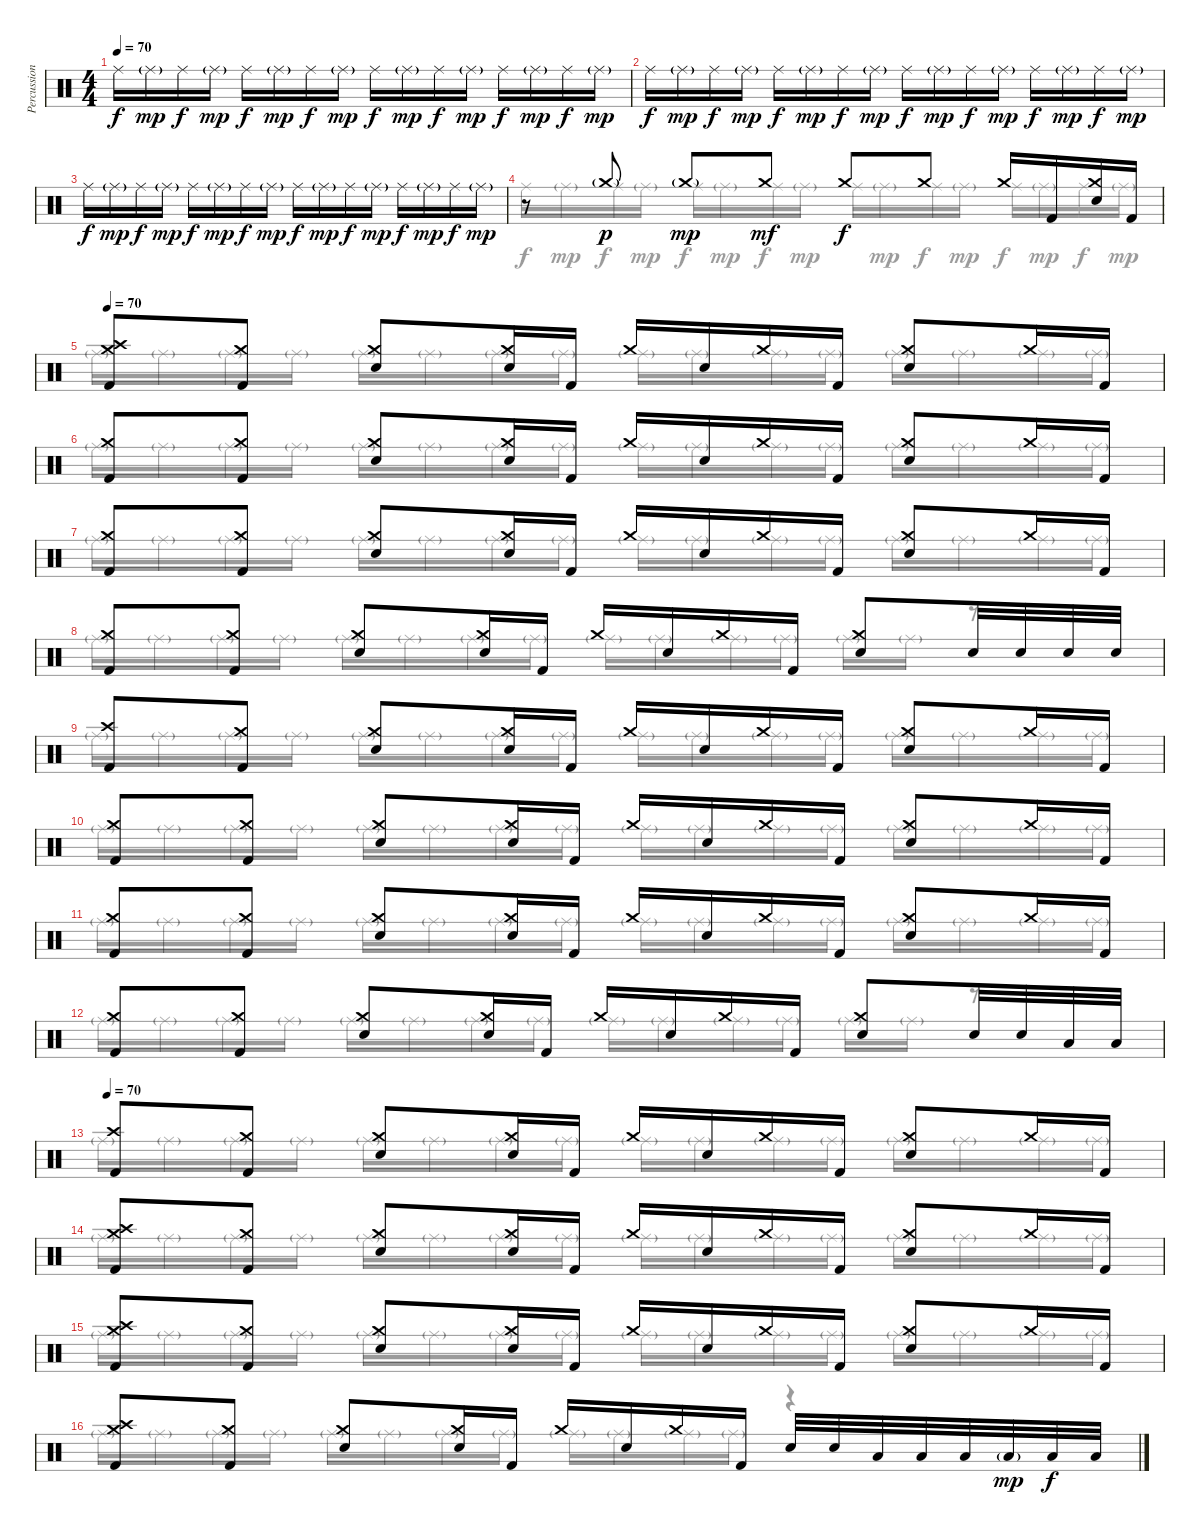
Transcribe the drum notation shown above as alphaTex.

\track ("Percussion" "Percussion") {instrument percussion}
\staff {score}
\articulation defaults
\voice
\ts (4 4)
\tempo 70
\clef neutral
\ks c "Ride (middle)".16{dy f} "Ride (middle)"{g}.16{dy mp} "Ride (middle)".16{dy f} "Ride (middle)"{g}.16{dy mp} "Ride (middle)".16{dy f} "Ride (middle)"{g}.16{dy mp} "Ride (middle)".16{dy f} "Ride (middle)"{g}.16{dy mp} "Ride (middle)".16{dy f} "Ride (middle)"{g}.16{dy mp} "Ride (middle)".16{dy f} "Ride (middle)"{g}.16{dy mp} "Ride (middle)".16{dy f} "Ride (middle)"{g}.16{dy mp} "Ride (middle)".16{dy f} "Ride (middle)"{g}.16{dy mp}
|
"Ride (middle)".16{dy f} "Ride (middle)"{g}.16{dy mp} "Ride (middle)".16{dy f} "Ride (middle)"{g}.16{dy mp} "Ride (middle)".16{dy f} "Ride (middle)"{g}.16{dy mp} "Ride (middle)".16{dy f} "Ride (middle)"{g}.16{dy mp} "Ride (middle)".16{dy f} "Ride (middle)"{g}.16{dy mp} "Ride (middle)".16{dy f} "Ride (middle)"{g}.16{dy mp} "Ride (middle)".16{dy f} "Ride (middle)"{g}.16{dy mp} "Ride (middle)".16{dy f} "Ride (middle)"{g}.16{dy mp} |
"Ride (middle)".16{dy f} "Ride (middle)"{g}.16{dy mp} "Ride (middle)".16{dy f} "Ride (middle)"{g}.16{dy mp} "Ride (middle)".16{dy f} "Ride (middle)"{g}.16{dy mp} "Ride (middle)".16{dy f} "Ride (middle)"{g}.16{dy mp} "Ride (middle)".16{dy f} "Ride (middle)"{g}.16{dy mp} "Ride (middle)".16{dy f} "Ride (middle)"{g}.16{dy mp} "Ride (middle)".16{dy f} "Ride (middle)"{g}.16{dy mp} "Ride (middle)".16{dy f} "Ride (middle)"{g}.16{dy mp} |
r.8 "Crash medium (hit)"{g}.8{dy p} "Crash medium (hit)"{g}.8{dy mp} "Crash medium (hit)".8{dy mf} "Crash medium (hit)".8{dy f} "Crash medium (hit)".8 "Crash medium (hit)".16 "Kick (hit) 2".16 ("Crash medium (hit)" "Electric Snare (hit)").16 "Kick (hit) 2".16 |
\tempo 70
("Crash medium (hit)" "Crash high (hit)" "Kick (hit) 2").8 ("Crash medium (hit)" "Kick (hit) 2").8 ("Crash medium (hit)" "Electric Snare (hit)").8 ("Crash medium (hit)" "Electric Snare (hit)").16 "Kick (hit) 2".16 "Crash medium (hit)".16 "Electric Snare (hit)".16 "Crash medium (hit)".16 "Kick (hit) 2".16 ("Crash medium (hit)" "Electric Snare (hit)").8 "Crash medium (hit)".16 "Kick (hit) 2".16 |
("Crash medium (hit)" "Kick (hit) 2").8 ("Crash medium (hit)" "Kick (hit) 2").8 ("Crash medium (hit)" "Electric Snare (hit)").8 ("Crash medium (hit)" "Electric Snare (hit)").16 "Kick (hit) 2".16 "Crash medium (hit)".16 "Electric Snare (hit)".16 "Crash medium (hit)".16 "Kick (hit) 2".16 ("Crash medium (hit)" "Electric Snare (hit)").8 "Crash medium (hit)".16 "Kick (hit) 2".16 |
("Crash medium (hit)" "Kick (hit) 2").8 ("Crash medium (hit)" "Kick (hit) 2").8 ("Crash medium (hit)" "Electric Snare (hit)").8 ("Crash medium (hit)" "Electric Snare (hit)").16 "Kick (hit) 2".16 "Crash medium (hit)".16 "Electric Snare (hit)".16 "Crash medium (hit)".16 "Kick (hit) 2".16 ("Crash medium (hit)" "Electric Snare (hit)").8 "Crash medium (hit)".16 "Kick (hit) 2".16 |
("Crash medium (hit)" "Kick (hit) 2").8 ("Crash medium (hit)" "Kick (hit) 2").8 ("Crash medium (hit)" "Electric Snare (hit)").8 ("Crash medium (hit)" "Electric Snare (hit)").16 "Kick (hit) 2".16 "Crash medium (hit)".16 "Electric Snare (hit)".16 "Crash medium (hit)".16 "Kick (hit) 2".16 ("Crash medium (hit)" "Electric Snare (hit)").8 "Electric Snare (hit)".32 "Electric Snare (hit)".32 "Electric Snare (hit)".32 "Electric Snare (hit)".32 |
("Crash high (hit)" "Kick (hit) 2").8 ("Crash medium (hit)" "Kick (hit) 2").8 ("Crash medium (hit)" "Electric Snare (hit)").8 ("Crash medium (hit)" "Electric Snare (hit)").16 "Kick (hit) 2".16 "Crash medium (hit)".16 "Electric Snare (hit)".16 "Crash medium (hit)".16 "Kick (hit) 2".16 ("Crash medium (hit)" "Electric Snare (hit)").8 "Crash medium (hit)".16 "Kick (hit) 2".16 |
("Crash medium (hit)" "Kick (hit) 2").8 ("Crash medium (hit)" "Kick (hit) 2").8 ("Crash medium (hit)" "Electric Snare (hit)").8 ("Crash medium (hit)" "Electric Snare (hit)").16 "Kick (hit) 2".16 "Crash medium (hit)".16 "Electric Snare (hit)".16 "Crash medium (hit)".16 "Kick (hit) 2".16 ("Crash medium (hit)" "Electric Snare (hit)").8 "Crash medium (hit)".16 "Kick (hit) 2".16 |
("Crash medium (hit)" "Kick (hit) 2").8 ("Crash medium (hit)" "Kick (hit) 2").8 ("Crash medium (hit)" "Electric Snare (hit)").8 ("Crash medium (hit)" "Electric Snare (hit)").16 "Kick (hit) 2".16 "Crash medium (hit)".16 "Electric Snare (hit)".16 "Crash medium (hit)".16 "Kick (hit) 2".16 ("Crash medium (hit)" "Electric Snare (hit)").8 "Crash medium (hit)".16 "Kick (hit) 2".16 |
("Crash medium (hit)" "Kick (hit) 2").8 ("Crash medium (hit)" "Kick (hit) 2").8 ("Crash medium (hit)" "Electric Snare (hit)").8 ("Crash medium (hit)" "Electric Snare (hit)").16 "Kick (hit) 2".16 "Crash medium (hit)".16 "Electric Snare (hit)".16 "Crash medium (hit)".16 "Kick (hit) 2".16 ("Crash medium (hit)" "Electric Snare (hit)").8 "Electric Snare (hit)".32 "Electric Snare (hit)".32 "Low Tom (hit)".32 "Low Tom (hit)".32 |
\tempo 70
("Crash high (hit)" "Kick (hit) 2").8 ("Crash medium (hit)" "Kick (hit) 2").8 ("Crash medium (hit)" "Electric Snare (hit)").8 ("Crash medium (hit)" "Electric Snare (hit)").16 "Kick (hit) 2".16 "Crash medium (hit)".16 "Electric Snare (hit)".16 "Crash medium (hit)".16 "Kick (hit) 2".16 ("Crash medium (hit)" "Electric Snare (hit)").8 "Crash medium (hit)".16 "Kick (hit) 2".16 |
("Crash medium (hit)" "Crash high (hit)" "Kick (hit) 2").8 ("Crash medium (hit)" "Kick (hit) 2").8 ("Crash medium (hit)" "Electric Snare (hit)").8 ("Crash medium (hit)" "Electric Snare (hit)").16 "Kick (hit) 2".16 "Crash medium (hit)".16 "Electric Snare (hit)".16 "Crash medium (hit)".16 "Kick (hit) 2".16 ("Crash medium (hit)" "Electric Snare (hit)").8 "Crash medium (hit)".16 "Kick (hit) 2".16 |
("Crash medium (hit)" "Crash high (hit)" "Kick (hit) 2").8 ("Crash medium (hit)" "Kick (hit) 2").8 ("Crash medium (hit)" "Electric Snare (hit)").8 ("Crash medium (hit)" "Electric Snare (hit)").16 "Kick (hit) 2".16 "Crash medium (hit)".16 "Electric Snare (hit)".16 "Crash medium (hit)".16 "Kick (hit) 2".16 ("Crash medium (hit)" "Electric Snare (hit)").8 "Crash medium (hit)".16 "Kick (hit) 2".16 |
("Crash medium (hit)" "Crash high (hit)" "Kick (hit) 2").8 ("Crash medium (hit)" "Kick (hit) 2").8 ("Crash medium (hit)" "Electric Snare (hit)").8 ("Crash medium (hit)" "Electric Snare (hit)").16 "Kick (hit) 2".16 "Crash medium (hit)".16 "Electric Snare (hit)".16 "Crash medium (hit)".16 "Kick (hit) 2".16 "Electric Snare (hit)".32 "Electric Snare (hit)".32 "Low Tom (hit)".32 "Low Tom (hit)".32 "Low Tom (hit)".32 "Low Tom (hit)"{g}.32{dy mp} "Low Tom (hit)".32{dy f} "Low Tom (hit)".32
\voice
\clef neutral
\ottava regular
\simile none
\ks c
|
|
|
"Ride (middle)".16 "Ride (middle)"{g}.16{dy mp} "Ride (middle)".16{dy f} "Ride (middle)"{g}.16{dy mp} "Ride (middle)".16{dy f} "Ride (middle)"{g}.16{dy mp} "Ride (middle)".16{dy f} "Ride (middle)"{g}.16{dy mp} "Ride (middle)".16{dy f} "Ride (middle)"{g}.16{dy mp} "Ride (middle)".16{dy f} "Ride (middle)"{g}.16{dy mp} "Ride (middle)".16{dy f} "Ride (middle)"{g}.16{dy mp} "Ride (middle)".16{dy f} "Ride (middle)"{g}.16{dy mp} |
"Ride (middle)"{g}.16 "Ride (middle)"{g}.16 "Ride (middle)"{g}.16 "Ride (middle)"{g}.16 "Ride (middle)"{g}.16 "Ride (middle)"{g}.16 "Ride (middle)"{g}.16 "Ride (middle)"{g}.16 "Ride (middle)"{g}.16 "Ride (middle)"{g}.16 "Ride (middle)"{g}.16 "Ride (middle)"{g}.16 "Ride (middle)"{g}.16 "Ride (middle)"{g}.16 "Ride (middle)"{g}.16 "Ride (middle)"{g}.16 |
"Ride (middle)"{g}.16 "Ride (middle)"{g}.16 "Ride (middle)"{g}.16 "Ride (middle)"{g}.16 "Ride (middle)"{g}.16 "Ride (middle)"{g}.16 "Ride (middle)"{g}.16 "Ride (middle)"{g}.16 "Ride (middle)"{g}.16 "Ride (middle)"{g}.16 "Ride (middle)"{g}.16 "Ride (middle)"{g}.16 "Ride (middle)"{g}.16 "Ride (middle)"{g}.16 "Ride (middle)"{g}.16 "Ride (middle)"{g}.16 |
"Ride (middle)"{g}.16 "Ride (middle)"{g}.16 "Ride (middle)"{g}.16 "Ride (middle)"{g}.16 "Ride (middle)"{g}.16 "Ride (middle)"{g}.16 "Ride (middle)"{g}.16 "Ride (middle)"{g}.16 "Ride (middle)"{g}.16 "Ride (middle)"{g}.16 "Ride (middle)"{g}.16 "Ride (middle)"{g}.16 "Ride (middle)"{g}.16 "Ride (middle)"{g}.16 "Ride (middle)"{g}.16 "Ride (middle)"{g}.16 |
"Ride (middle)"{g}.16 "Ride (middle)"{g}.16 "Ride (middle)"{g}.16 "Ride (middle)"{g}.16 "Ride (middle)"{g}.16 "Ride (middle)"{g}.16 "Ride (middle)"{g}.16 "Ride (middle)"{g}.16 "Ride (middle)"{g}.16 "Ride (middle)"{g}.16 "Ride (middle)"{g}.16 "Ride (middle)"{g}.16 "Ride (middle)"{g}.16 "Ride (middle)"{g}.16 r.8 |
"Ride (middle)"{g}.16 "Ride (middle)"{g}.16 "Ride (middle)"{g}.16 "Ride (middle)"{g}.16 "Ride (middle)"{g}.16 "Ride (middle)"{g}.16 "Ride (middle)"{g}.16 "Ride (middle)"{g}.16 "Ride (middle)"{g}.16 "Ride (middle)"{g}.16 "Ride (middle)"{g}.16 "Ride (middle)"{g}.16 "Ride (middle)"{g}.16 "Ride (middle)"{g}.16 "Ride (middle)"{g}.16 "Ride (middle)"{g}.16 |
"Ride (middle)"{g}.16 "Ride (middle)"{g}.16 "Ride (middle)"{g}.16 "Ride (middle)"{g}.16 "Ride (middle)"{g}.16 "Ride (middle)"{g}.16 "Ride (middle)"{g}.16 "Ride (middle)"{g}.16 "Ride (middle)"{g}.16 "Ride (middle)"{g}.16 "Ride (middle)"{g}.16 "Ride (middle)"{g}.16 "Ride (middle)"{g}.16 "Ride (middle)"{g}.16 "Ride (middle)"{g}.16 "Ride (middle)"{g}.16 |
"Ride (middle)"{g}.16 "Ride (middle)"{g}.16 "Ride (middle)"{g}.16 "Ride (middle)"{g}.16 "Ride (middle)"{g}.16 "Ride (middle)"{g}.16 "Ride (middle)"{g}.16 "Ride (middle)"{g}.16 "Ride (middle)"{g}.16 "Ride (middle)"{g}.16 "Ride (middle)"{g}.16 "Ride (middle)"{g}.16 "Ride (middle)"{g}.16 "Ride (middle)"{g}.16 "Ride (middle)"{g}.16 "Ride (middle)"{g}.16 |
"Ride (middle)"{g}.16 "Ride (middle)"{g}.16 "Ride (middle)"{g}.16 "Ride (middle)"{g}.16 "Ride (middle)"{g}.16 "Ride (middle)"{g}.16 "Ride (middle)"{g}.16 "Ride (middle)"{g}.16 "Ride (middle)"{g}.16 "Ride (middle)"{g}.16 "Ride (middle)"{g}.16 "Ride (middle)"{g}.16 "Ride (middle)"{g}.16 "Ride (middle)"{g}.16 r.8 |
"Ride (middle)"{g}.16 "Ride (middle)"{g}.16 "Ride (middle)"{g}.16 "Ride (middle)"{g}.16 "Ride (middle)"{g}.16 "Ride (middle)"{g}.16 "Ride (middle)"{g}.16 "Ride (middle)"{g}.16 "Ride (middle)"{g}.16 "Ride (middle)"{g}.16 "Ride (middle)"{g}.16 "Ride (middle)"{g}.16 "Ride (middle)"{g}.16 "Ride (middle)"{g}.16 "Ride (middle)"{g}.16 "Ride (middle)"{g}.16 |
"Ride (middle)"{g}.16 "Ride (middle)"{g}.16 "Ride (middle)"{g}.16 "Ride (middle)"{g}.16 "Ride (middle)"{g}.16 "Ride (middle)"{g}.16 "Ride (middle)"{g}.16 "Ride (middle)"{g}.16 "Ride (middle)"{g}.16 "Ride (middle)"{g}.16 "Ride (middle)"{g}.16 "Ride (middle)"{g}.16 "Ride (middle)"{g}.16 "Ride (middle)"{g}.16 "Ride (middle)"{g}.16 "Ride (middle)"{g}.16 |
"Ride (middle)"{g}.16 "Ride (middle)"{g}.16 "Ride (middle)"{g}.16 "Ride (middle)"{g}.16 "Ride (middle)"{g}.16 "Ride (middle)"{g}.16 "Ride (middle)"{g}.16 "Ride (middle)"{g}.16 "Ride (middle)"{g}.16 "Ride (middle)"{g}.16 "Ride (middle)"{g}.16 "Ride (middle)"{g}.16 "Ride (middle)"{g}.16 "Ride (middle)"{g}.16 "Ride (middle)"{g}.16 "Ride (middle)"{g}.16 |
"Ride (middle)"{g}.16 "Ride (middle)"{g}.16 "Ride (middle)"{g}.16 "Ride (middle)"{g}.16 "Ride (middle)"{g}.16 "Ride (middle)"{g}.16 "Ride (middle)"{g}.16 "Ride (middle)"{g}.16 "Ride (middle)"{g}.16 "Ride (middle)"{g}.16 "Ride (middle)"{g}.16 "Ride (middle)"{g}.16 r.4
